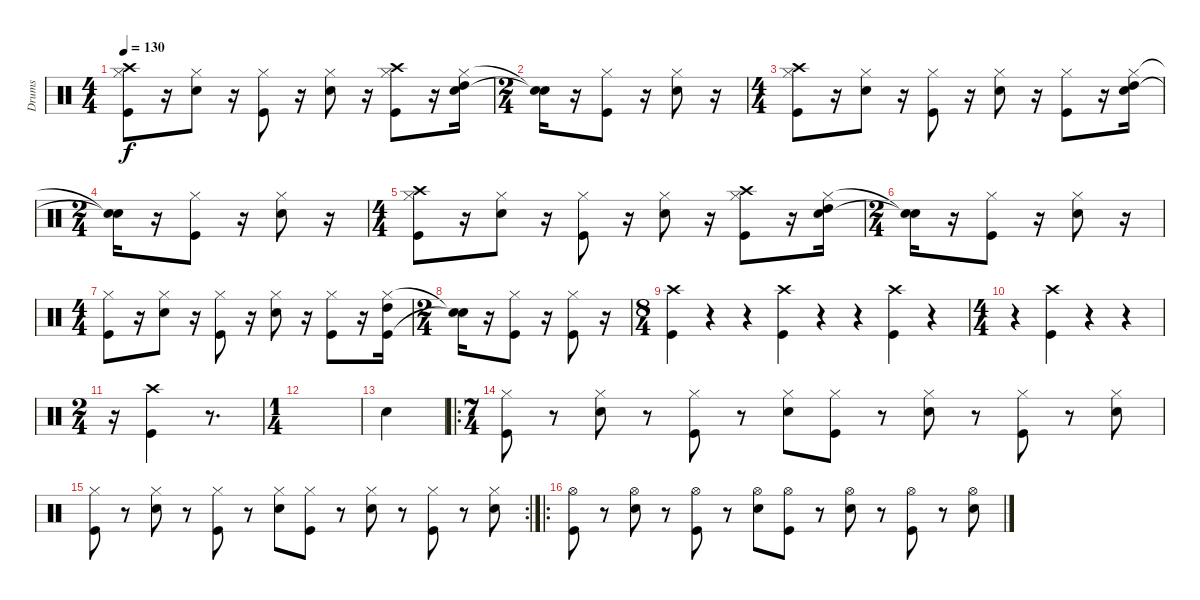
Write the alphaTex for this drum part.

\track ("Drums" "Drums") {instrument percussion}
\staff {score}
\articulation defaults
\ts (4 4)
\tempo 130
\clef neutral
\ks c
("Hi-Hat (closed)" "Kick (hit)" "Crash high (hit)").8{dy f} r.16 ("Hi-Hat (closed)" "Snare (hit) 2").8 r.16 ("Hi-Hat (closed)" "Kick (hit)").8 r.16 ("Hi-Hat (closed)" "Snare (hit) 2").8 r.16 ("Hi-Hat (closed)" "Kick (hit)" "Crash high (hit)").8 r.16 ("Hi-Hat (closed)" "Snare (hit) 2" "High Tom (hit)").16 |
\ts (2 4)
("Snare (hit)"{t} "Snare (hit)"{t}).16 r.16 ("Hi-Hat (closed)" "Kick (hit)").8 r.16 ("Hi-Hat (closed)" "Snare (hit) 2").8 r.16 |
\ts (4 4)
("Hi-Hat (closed)" "Kick (hit)" "Crash high (hit)").8 r.16 ("Hi-Hat (closed)" "Snare (hit) 2").8 r.16 ("Hi-Hat (closed)" "Kick (hit)").8 r.16 ("Hi-Hat (closed)" "Snare (hit) 2").8 r.16 ("Hi-Hat (closed)" "Kick (hit)").8 r.16 ("Hi-Hat (closed)" "Snare (hit) 2" "High Tom (hit)").16 |
\ts (2 4)
("Snare (hit)"{t} "Snare (hit)"{t}).16 r.16 ("Hi-Hat (closed)" "Kick (hit)").8 r.16 ("Hi-Hat (closed)" "Snare (hit) 2").8 r.16 |
\ts (4 4)
("Hi-Hat (closed)" "Kick (hit)" "Crash high (hit)").8 r.16 ("Hi-Hat (closed)" "Snare (hit) 2").8 r.16 ("Hi-Hat (closed)" "Kick (hit)").8 r.16 ("Hi-Hat (closed)" "Snare (hit) 2").8 r.16 ("Hi-Hat (closed)" "Kick (hit)" "Crash high (hit)").8 r.16 ("Hi-Hat (closed)" "Snare (hit) 2" "High Tom (hit)").16 |
\ts (2 4)
("Snare (hit)"{t} "Snare (hit)"{t}).16 r.16 ("Hi-Hat (closed)" "Kick (hit)").8 r.16 ("Hi-Hat (closed)" "Snare (hit) 2").8 r.16 |
\ts (4 4)
("Hi-Hat (closed)" "Kick (hit)").8 r.16 ("Hi-Hat (closed)" "Snare (hit) 2").8 r.16 ("Hi-Hat (closed)" "Kick (hit)").8 r.16 ("Hi-Hat (closed)" "Snare (hit) 2").8 r.16 ("Hi-Hat (closed)" "Kick (hit)").8 r.16 ("Hi-Hat (closed)" "Kick (hit)" "High Tom (hit)").16 |
\ts (2 4)
("Snare (hit)"{t} "Snare (hit)"{t}).16 r.16 ("Hi-Hat (closed)" "Kick (hit)").8 r.16 ("Hi-Hat (closed)" "Kick (hit)").8 r.16 |
\ts (8 4)
("Kick (hit)" "Crash high (hit)").4 r.4 r.4 ("Kick (hit)" "Crash high (hit)").4 r.4 r.4 ("Kick (hit)" "Crash high (hit)").4 r.4 |
\ts (4 4)
r.4 ("Kick (hit)" "Crash high (hit)").4 r.4 r.4 |
\ts (2 4)
r.16 ("Kick (hit)" "Crash high (hit)").4 r.8{d} |
\ts (1 4)
|
"Snare (hit) 2".4 |
\ro
\ts (7 4)
("Hi-Hat (closed)" "Kick (hit)").8 r.8 ("Hi-Hat (closed)" "Snare (hit) 2").8 r.8 ("Hi-Hat (closed)" "Kick (hit)").8 r.8 ("Hi-Hat (closed)" "Snare (hit) 2").8 ("Hi-Hat (closed)" "Kick (hit)").8 r.8 ("Hi-Hat (closed)" "Snare (hit) 2").8 r.8 ("Hi-Hat (closed)" "Kick (hit)").8 r.8 ("Hi-Hat (closed)" "Snare (hit) 2").8 |
\rc 2
("Hi-Hat (closed)" "Kick (hit)").8 r.8 ("Hi-Hat (closed)" "Snare (hit) 2").8 r.8 ("Hi-Hat (closed)" "Kick (hit)").8 r.8 ("Hi-Hat (closed)" "Snare (hit) 2").8 ("Hi-Hat (closed)" "Kick (hit)").8 r.8 ("Hi-Hat (closed)" "Snare (hit) 2").8 r.8 ("Hi-Hat (closed)" "Kick (hit)").8 r.8 ("Hi-Hat (closed)" "Snare (hit) 2").8 |
\ro
("Hi-Hat (open)" "Kick (hit)").8 r.8 ("Hi-Hat (open)" "Snare (hit) 2").8 r.8 ("Hi-Hat (open)" "Kick (hit)").8 r.8 ("Hi-Hat (open)" "Snare (hit) 2").8 ("Hi-Hat (open)" "Kick (hit)").8 r.8 ("Hi-Hat (open)" "Snare (hit) 2").8 r.8 ("Hi-Hat (open)" "Kick (hit)").8 r.8 ("Hi-Hat (open)" "Snare (hit) 2").8
